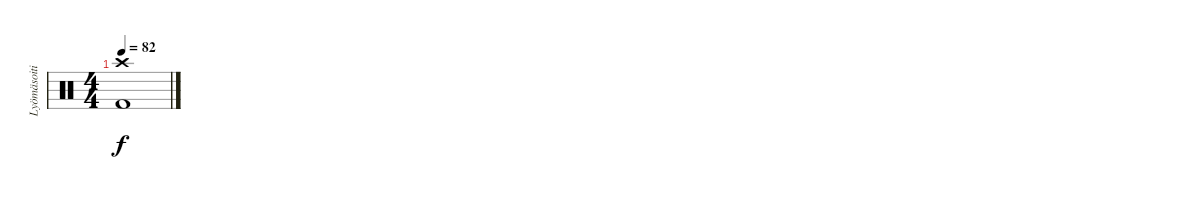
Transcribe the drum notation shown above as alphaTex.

\track ("Lyömäsoitin" "Lyömäsoiti") {instrument percussion}
\staff {score}
\articulation defaults
\ts (4 4)
\tempo 82
\clef neutral
\ks c
("Crash high (hit)" "Kick (hit) 2").1{dy f}
